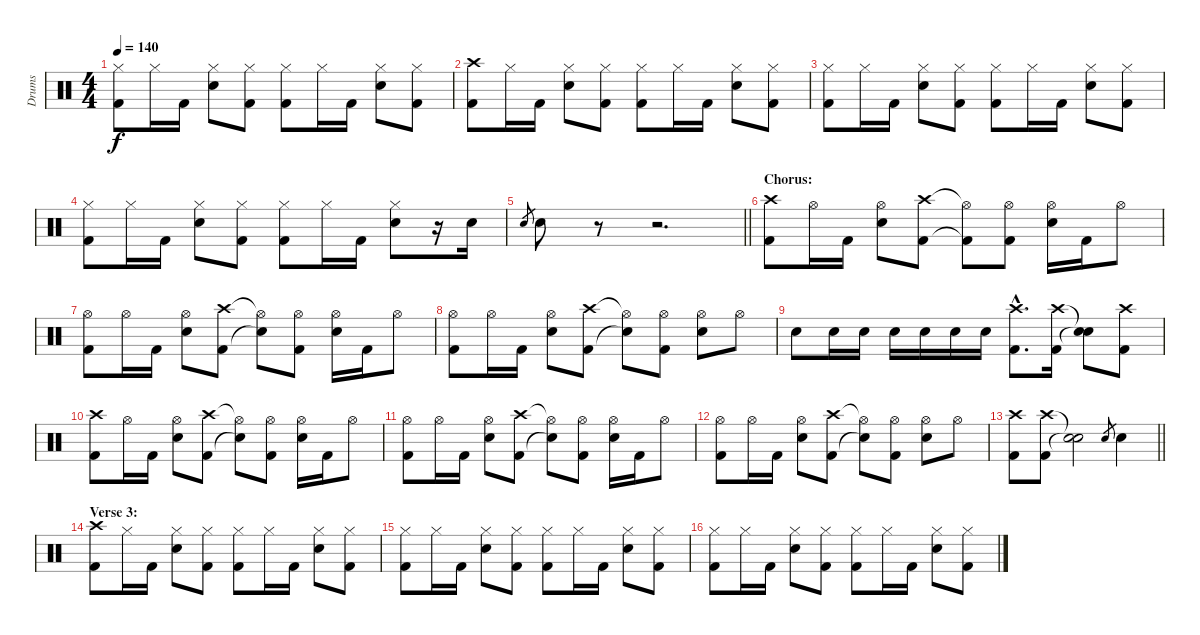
\track ("Drums" "Drums") {instrument percussion}
\staff {score}
\articulation defaults
\ts (4 4)
\tempo 140
\clef neutral
\ks c
("Hi-Hat (closed)" "Kick (hit) 2").8{dy f} "Hi-Hat (closed)".16 "Kick (hit) 2".16 ("Hi-Hat (closed)" "Snare (hit) 2").8 ("Hi-Hat (closed)" "Kick (hit) 2").8 ("Hi-Hat (closed)" "Kick (hit) 2").8 "Hi-Hat (closed)".16 "Kick (hit) 2".16 ("Hi-Hat (closed)" "Snare (hit) 2").8 ("Hi-Hat (closed)" "Kick (hit) 2").8 |
("Crash high (hit)" "Kick (hit) 2").8 "Hi-Hat (closed)".16 "Kick (hit) 2".16 ("Hi-Hat (closed)" "Snare (hit) 2").8 ("Hi-Hat (closed)" "Kick (hit) 2").8 ("Hi-Hat (closed)" "Kick (hit) 2").8 "Hi-Hat (closed)".16 "Kick (hit) 2".16 ("Hi-Hat (closed)" "Snare (hit) 2").8 ("Hi-Hat (closed)" "Kick (hit) 2").8 |
("Hi-Hat (closed)" "Kick (hit) 2").8 "Hi-Hat (closed)".16 "Kick (hit) 2".16 ("Hi-Hat (closed)" "Snare (hit) 2").8 ("Hi-Hat (closed)" "Kick (hit) 2").8 ("Hi-Hat (closed)" "Kick (hit) 2").8 "Hi-Hat (closed)".16 "Kick (hit) 2".16 ("Hi-Hat (closed)" "Snare (hit) 2").8 ("Hi-Hat (closed)" "Kick (hit) 2").8 |
("Hi-Hat (closed)" "Kick (hit) 2").8 "Hi-Hat (closed)".16 "Kick (hit) 2".16 ("Hi-Hat (closed)" "Snare (hit) 2").8 ("Hi-Hat (closed)" "Kick (hit) 2").8 ("Hi-Hat (closed)" "Kick (hit) 2").8 "Hi-Hat (closed)".16 "Kick (hit) 2".16 ("Hi-Hat (closed)" "Snare (hit) 2").8 r.16 "Snare (hit) 2".16 |
\barLineRight lightlight "Snare (hit) 2".8{gr} "Snare (hit) 2".8
r.8 r.2{d} |
\section ("" "Chorus:")
("Crash high (hit)" "Kick (hit) 2").8 "Hi-Hat (open)".16 "Kick (hit) 2".16 ("Hi-Hat (open)" "Snare (hit) 2").8 ("Crash high (hit)" "Kick (hit) 2").8 ("Hi-Hat (open)"{t} "Kick (hit) 2"{t}).8 ("Hi-Hat (open)" "Kick (hit) 2").8 ("Hi-Hat (open)" "Snare (hit) 2").16 "Kick (hit) 2".16 "Hi-Hat (open)".8 |
("Hi-Hat (open)" "Kick (hit) 2").8 "Hi-Hat (open)".16 "Kick (hit) 2".16 ("Hi-Hat (open)" "Snare (hit) 2").8 ("Crash high (hit)" "Kick (hit) 2").8 ("Hi-Hat (open)"{t} "Snare (hit)"{t}).8 ("Hi-Hat (open)" "Kick (hit) 2").8 ("Hi-Hat (open)" "Snare (hit) 2").16 "Kick (hit) 2".16 "Hi-Hat (open)".8 |
("Hi-Hat (open)" "Kick (hit) 2").8 "Hi-Hat (open)".16 "Kick (hit) 2".16 ("Hi-Hat (open)" "Snare (hit) 2").8 ("Crash high (hit)" "Kick (hit) 2").8 ("Hi-Hat (open)"{t} "Snare (hit)"{t}).8 ("Hi-Hat (open)" "Kick (hit) 2").8 ("Hi-Hat (open)" "Snare (hit) 2").8 "Hi-Hat (open)".8 |
"Snare (hit) 2".8 "Snare (hit) 2".16 "Snare (hit) 2".16 "Snare (hit) 2".16 "Snare (hit) 2".16 "Snare (hit) 2".16 "Snare (hit) 2".16 ("Crash high (hit)"{hac} "Kick (hit) 2"{hac}).8{d} ("Crash high (hit)" "Kick (hit) 2").16 ("Snare (hit)"{t} "Snare (hit)"{t}).8 ("Crash high (hit)" "Kick (hit) 2").8 |
("Crash high (hit)" "Kick (hit) 2").8 "Hi-Hat (open)".16 "Kick (hit) 2".16 ("Hi-Hat (open)" "Snare (hit) 2").8 ("Crash high (hit)" "Kick (hit) 2").8 ("Hi-Hat (open)"{t} "Snare (hit)"{t}).8 ("Hi-Hat (open)" "Kick (hit) 2").8 ("Hi-Hat (open)" "Snare (hit) 2").16 "Kick (hit) 2".16 "Hi-Hat (open)".8 |
("Hi-Hat (open)" "Kick (hit) 2").8 "Hi-Hat (open)".16 "Kick (hit) 2".16 ("Hi-Hat (open)" "Snare (hit) 2").8 ("Crash high (hit)" "Kick (hit) 2").8 ("Hi-Hat (open)"{t} "Snare (hit)"{t}).8 ("Hi-Hat (open)" "Kick (hit) 2").8 ("Hi-Hat (open)" "Snare (hit) 2").16 "Kick (hit) 2".16 "Hi-Hat (open)".8 |
("Hi-Hat (open)" "Kick (hit) 2").8 "Hi-Hat (open)".16 "Kick (hit) 2".16 ("Hi-Hat (open)" "Snare (hit) 2").8 ("Crash high (hit)" "Kick (hit) 2").8 ("Hi-Hat (open)"{t} "Snare (hit)"{t}).8 ("Hi-Hat (open)" "Kick (hit) 2").8 ("Hi-Hat (open)" "Snare (hit) 2").8 "Hi-Hat (open)".8 |
\barLineRight lightlight
("Crash high (hit)" "Kick (hit) 2").8 ("Crash high (hit)" "Kick (hit) 2").8 ("Snare (hit)"{t} "Snare (hit)"{t}).2 "Snare (hit) 2".8{gr} "Snare (hit) 2".4 |
\section ("" "Verse 3:")
("Crash high (hit)" "Kick (hit) 2").8 "Hi-Hat (closed)".16 "Kick (hit) 2".16 ("Hi-Hat (closed)" "Snare (hit) 2").8 ("Hi-Hat (closed)" "Kick (hit) 2").8 ("Hi-Hat (closed)" "Kick (hit) 2").8 "Hi-Hat (closed)".16 "Kick (hit) 2".16 ("Hi-Hat (closed)" "Snare (hit) 2").8 ("Hi-Hat (closed)" "Kick (hit) 2").8 |
("Hi-Hat (closed)" "Kick (hit) 2").8 "Hi-Hat (closed)".16 "Kick (hit) 2".16 ("Hi-Hat (closed)" "Snare (hit) 2").8 ("Hi-Hat (closed)" "Kick (hit) 2").8 ("Hi-Hat (closed)" "Kick (hit) 2").8 "Hi-Hat (closed)".16 "Kick (hit) 2".16 ("Hi-Hat (closed)" "Snare (hit) 2").8 ("Hi-Hat (closed)" "Kick (hit) 2").8 |
("Hi-Hat (closed)" "Kick (hit) 2").8 "Hi-Hat (closed)".16 "Kick (hit) 2".16 ("Hi-Hat (closed)" "Snare (hit) 2").8 ("Hi-Hat (closed)" "Kick (hit) 2").8 ("Hi-Hat (closed)" "Kick (hit) 2").8 "Hi-Hat (closed)".16 "Kick (hit) 2".16 ("Hi-Hat (closed)" "Snare (hit) 2").8 ("Hi-Hat (closed)" "Kick (hit) 2").8
